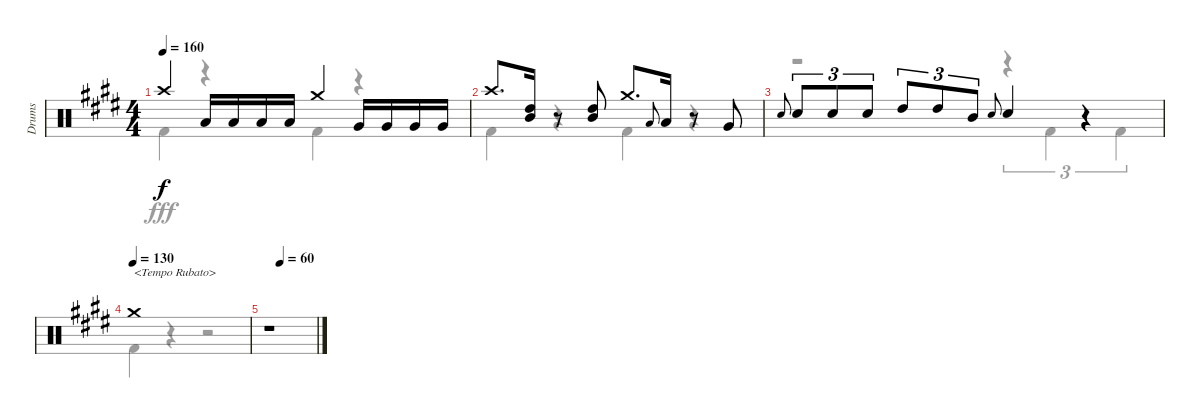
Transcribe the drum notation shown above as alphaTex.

\track ("Drums" "Drums") {instrument percussion}
\staff {score}
\articulation defaults
\voice
\ts (4 4)
\tempo 160
\clef neutral
\ks e "Crash high (hit)".4{dy f} "Low Tom (hit)".16 "Low Tom (hit)".16 "Low Tom (hit)".16 "Low Tom (hit)".16 "Crash medium (hit)".4 "Very Low Tom (hit)".16 "Very Low Tom (hit)".16 "Very Low Tom (hit)".16 "Very Low Tom (hit)".16
|
"Crash high (hit)".8{d} ("High Tom (hit)" "Mid Tom (hit)").16 r.8 ("High Tom (hit)" "Mid Tom (hit)").8 "Crash medium (hit)".8{d} "Low Tom (hit)".8{gr onbeat} "Low Tom (hit)".16 r.8 "Very Low Tom (hit)".8 |
"Snare (hit) 2".8{gr onbeat} "Snare (hit) 2".8{tu (3 2)} "Snare (hit) 2".8{tu (3 2)} "Snare (hit) 2".8{tu (3 2)} "High Tom (hit)".8{tu (3 2)} "High Tom (hit)".8{tu (3 2)} "Mid Tom (hit)".8{tu (3 2)} "Snare (hit) 2".8{gr onbeat} "Snare (hit) 2".4 r.4 |
\tempo (130)
"Crash medium (hit)".1{txt "<Tempo Rubato>"} |
\tempo (60 0.25)
r.1
\voice
\clef neutral
\ottava regular
\simile none
\ks e "Kick (hit) 2".4{dy fff}
r.4 "Kick (hit) 2".4 r.4 |
"Kick (hit) 2".4 r.4 "Kick (hit) 2".4 r.4 |
r.2 r.4{tu (3 2)} "Kick (hit) 2".4{tu (3 2)} "Kick (hit) 2".4{tu (3 2)} |
"Kick (hit) 2".4 r.4 r.2 |
r.1
